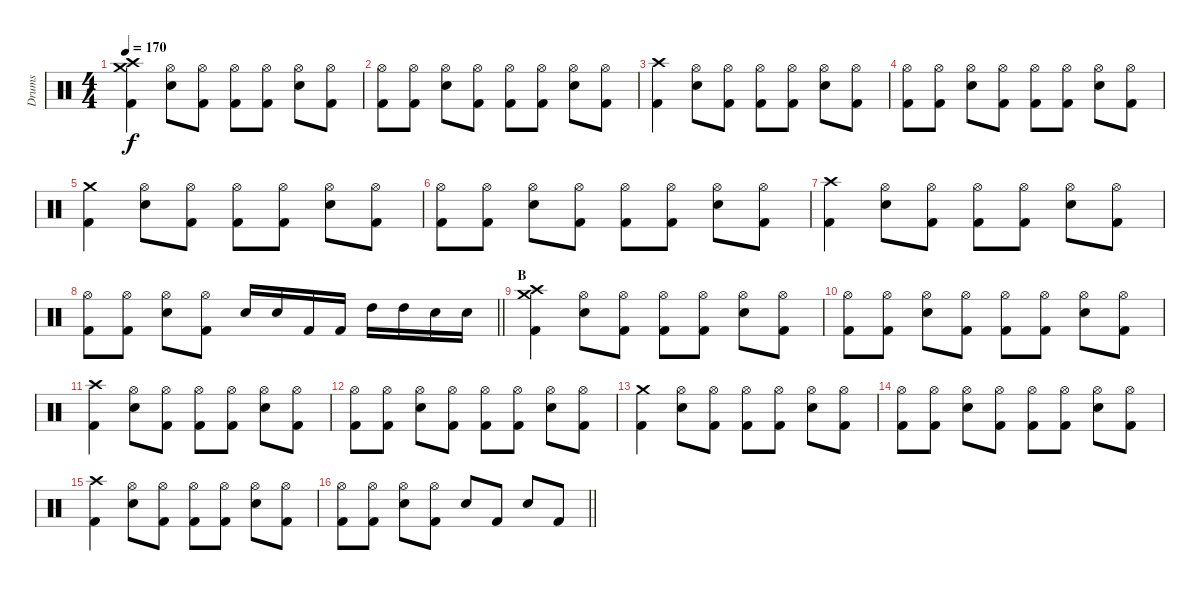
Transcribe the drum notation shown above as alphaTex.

\track ("Drums" "Drums") {instrument percussion}
\staff {score}
\articulation defaults
\ts (4 4)
\tempo 170
\clef neutral
\ks c
("Kick (hit) 2" "Crash high (hit)" "Crash medium (hit)").4{dy f} ("Snare (hit) 2" "Hi-Hat (open)").8 ("Kick (hit) 2" "Hi-Hat (open)").8 ("Kick (hit) 2" "Hi-Hat (open)").8 ("Kick (hit) 2" "Hi-Hat (open)").8 ("Snare (hit) 2" "Hi-Hat (open)").8 ("Kick (hit) 2" "Hi-Hat (open)").8 |
("Kick (hit) 2" "Hi-Hat (open)").8 ("Kick (hit) 2" "Hi-Hat (open)").8 ("Snare (hit) 2" "Hi-Hat (open)").8 ("Kick (hit) 2" "Hi-Hat (open)").8 ("Kick (hit) 2" "Hi-Hat (open)").8 ("Kick (hit) 2" "Hi-Hat (open)").8 ("Snare (hit) 2" "Hi-Hat (open)").8 ("Kick (hit) 2" "Hi-Hat (open)").8 |
("Kick (hit) 2" "Crash high (hit)").4 ("Snare (hit) 2" "Hi-Hat (open)").8 ("Kick (hit) 2" "Hi-Hat (open)").8 ("Kick (hit) 2" "Hi-Hat (open)").8 ("Kick (hit) 2" "Hi-Hat (open)").8 ("Snare (hit) 2" "Hi-Hat (open)").8 ("Kick (hit) 2" "Hi-Hat (open)").8 |
("Kick (hit) 2" "Hi-Hat (open)").8 ("Kick (hit) 2" "Hi-Hat (open)").8 ("Snare (hit) 2" "Hi-Hat (open)").8 ("Kick (hit) 2" "Hi-Hat (open)").8 ("Kick (hit) 2" "Hi-Hat (open)").8 ("Kick (hit) 2" "Hi-Hat (open)").8 ("Snare (hit) 2" "Hi-Hat (open)").8 ("Kick (hit) 2" "Hi-Hat (open)").8 |
("Kick (hit) 2" "Crash medium (hit)").4 ("Snare (hit) 2" "Hi-Hat (open)").8 ("Kick (hit) 2" "Hi-Hat (open)").8 ("Kick (hit) 2" "Hi-Hat (open)").8 ("Kick (hit) 2" "Hi-Hat (open)").8 ("Snare (hit) 2" "Hi-Hat (open)").8 ("Kick (hit) 2" "Hi-Hat (open)").8 |
("Kick (hit) 2" "Hi-Hat (open)").8 ("Kick (hit) 2" "Hi-Hat (open)").8 ("Snare (hit) 2" "Hi-Hat (open)").8 ("Kick (hit) 2" "Hi-Hat (open)").8 ("Kick (hit) 2" "Hi-Hat (open)").8 ("Kick (hit) 2" "Hi-Hat (open)").8 ("Snare (hit) 2" "Hi-Hat (open)").8 ("Kick (hit) 2" "Hi-Hat (open)").8 |
("Kick (hit) 2" "Crash high (hit)").4 ("Snare (hit) 2" "Hi-Hat (open)").8 ("Kick (hit) 2" "Hi-Hat (open)").8 ("Kick (hit) 2" "Hi-Hat (open)").8 ("Kick (hit) 2" "Hi-Hat (open)").8 ("Snare (hit) 2" "Hi-Hat (open)").8 ("Kick (hit) 2" "Hi-Hat (open)").8 |
\barLineRight lightlight
("Kick (hit) 2" "Hi-Hat (open)").8 ("Kick (hit) 2" "Hi-Hat (open)").8 ("Snare (hit) 2" "Hi-Hat (open)").8 ("Kick (hit) 2" "Hi-Hat (open)").8 "Snare (hit) 2".16 "Snare (hit) 2".16 "Kick (hit) 2".16 "Kick (hit) 2".16 "High Tom (hit)".16 "High Tom (hit)".16 "Snare (hit) 2".16 "Snare (hit) 2".16 |
\section ("" "B")
("Kick (hit) 2" "Crash high (hit)" "Crash medium (hit)").4 ("Snare (hit) 2" "Hi-Hat (open)").8 ("Kick (hit) 2" "Hi-Hat (open)").8 ("Kick (hit) 2" "Hi-Hat (open)").8 ("Kick (hit) 2" "Hi-Hat (open)").8 ("Snare (hit) 2" "Hi-Hat (open)").8 ("Kick (hit) 2" "Hi-Hat (open)").8 |
("Kick (hit) 2" "Hi-Hat (open)").8 ("Kick (hit) 2" "Hi-Hat (open)").8 ("Snare (hit) 2" "Hi-Hat (open)").8 ("Kick (hit) 2" "Hi-Hat (open)").8 ("Kick (hit) 2" "Hi-Hat (open)").8 ("Kick (hit) 2" "Hi-Hat (open)").8 ("Snare (hit) 2" "Hi-Hat (open)").8 ("Kick (hit) 2" "Hi-Hat (open)").8 |
("Kick (hit) 2" "Crash high (hit)").4 ("Snare (hit) 2" "Hi-Hat (open)").8 ("Kick (hit) 2" "Hi-Hat (open)").8 ("Kick (hit) 2" "Hi-Hat (open)").8 ("Kick (hit) 2" "Hi-Hat (open)").8 ("Snare (hit) 2" "Hi-Hat (open)").8 ("Kick (hit) 2" "Hi-Hat (open)").8 |
("Kick (hit) 2" "Hi-Hat (open)").8 ("Kick (hit) 2" "Hi-Hat (open)").8 ("Snare (hit) 2" "Hi-Hat (open)").8 ("Kick (hit) 2" "Hi-Hat (open)").8 ("Kick (hit) 2" "Hi-Hat (open)").8 ("Kick (hit) 2" "Hi-Hat (open)").8 ("Snare (hit) 2" "Hi-Hat (open)").8 ("Kick (hit) 2" "Hi-Hat (open)").8 |
("Kick (hit) 2" "Crash medium (hit)").4 ("Snare (hit) 2" "Hi-Hat (open)").8 ("Kick (hit) 2" "Hi-Hat (open)").8 ("Kick (hit) 2" "Hi-Hat (open)").8 ("Kick (hit) 2" "Hi-Hat (open)").8 ("Snare (hit) 2" "Hi-Hat (open)").8 ("Kick (hit) 2" "Hi-Hat (open)").8 |
("Kick (hit) 2" "Hi-Hat (open)").8 ("Kick (hit) 2" "Hi-Hat (open)").8 ("Snare (hit) 2" "Hi-Hat (open)").8 ("Kick (hit) 2" "Hi-Hat (open)").8 ("Kick (hit) 2" "Hi-Hat (open)").8 ("Kick (hit) 2" "Hi-Hat (open)").8 ("Snare (hit) 2" "Hi-Hat (open)").8 ("Kick (hit) 2" "Hi-Hat (open)").8 |
("Kick (hit) 2" "Crash high (hit)").4 ("Snare (hit) 2" "Hi-Hat (open)").8 ("Kick (hit) 2" "Hi-Hat (open)").8 ("Kick (hit) 2" "Hi-Hat (open)").8 ("Kick (hit) 2" "Hi-Hat (open)").8 ("Snare (hit) 2" "Hi-Hat (open)").8 ("Kick (hit) 2" "Hi-Hat (open)").8 |
\barLineRight lightlight
("Kick (hit) 2" "Hi-Hat (open)").8 ("Kick (hit) 2" "Hi-Hat (open)").8 ("Snare (hit) 2" "Hi-Hat (open)").8 ("Kick (hit) 2" "Hi-Hat (open)").8 "Snare (hit) 2".8 "Kick (hit) 2".8 "Snare (hit) 2".8 "Kick (hit) 2".8
